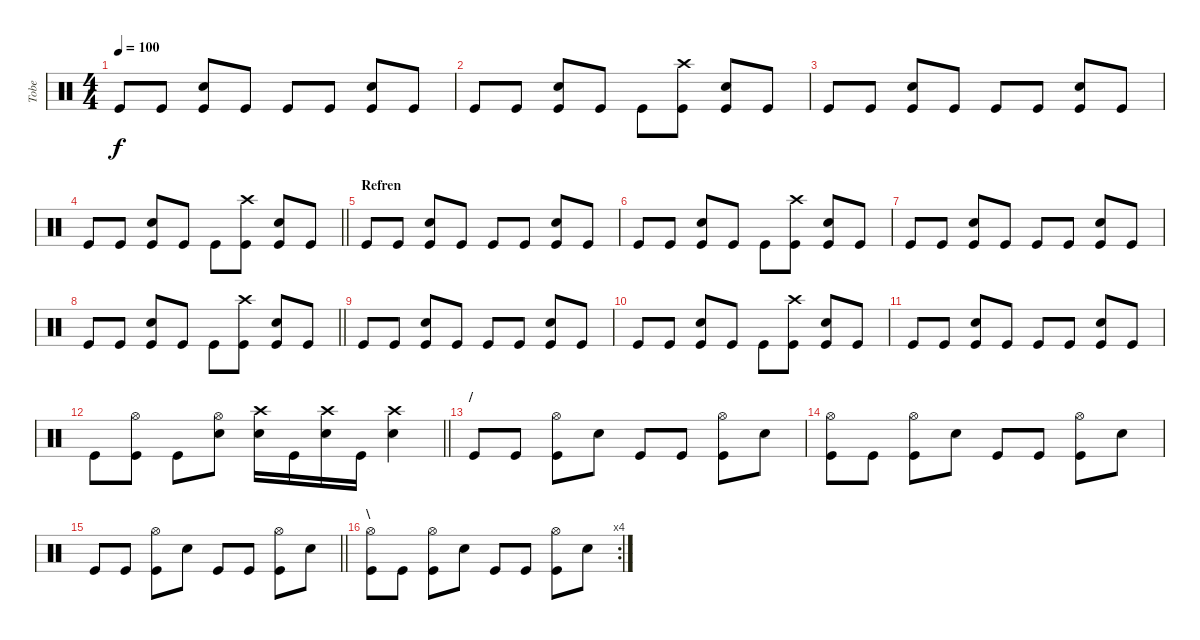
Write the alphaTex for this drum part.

\track ("Tobe" "Tobe") {instrument percussion}
\staff {score}
\articulation defaults
\ts (4 4)
\tempo 100
\clef neutral
\ks c "Kick (hit)".8{dy f} "Kick (hit)".8
("Snare (hit) 2" "Kick (hit)").8 "Kick (hit)".8 "Kick (hit)".8 "Kick (hit)".8 ("Snare (hit) 2" "Kick (hit)").8 "Kick (hit)".8 |
"Kick (hit)".8 "Kick (hit)".8 ("Snare (hit) 2" "Kick (hit)").8 "Kick (hit)".8 "Kick (hit)".8 ("Crash high (hit)" "Kick (hit)").8 ("Snare (hit) 2" "Kick (hit)").8 "Kick (hit)".8 |
"Kick (hit)".8 "Kick (hit)".8 ("Snare (hit) 2" "Kick (hit)").8 "Kick (hit)".8 "Kick (hit)".8 "Kick (hit)".8 ("Snare (hit) 2" "Kick (hit)").8 "Kick (hit)".8 |
\barLineRight lightlight "Kick (hit)".8 "Kick (hit)".8
("Snare (hit) 2" "Kick (hit)").8 "Kick (hit)".8 "Kick (hit)".8 ("Crash high (hit)" "Kick (hit)").8 ("Snare (hit) 2" "Kick (hit)").8 "Kick (hit)".8 |
\section ("" "Refren")
"Kick (hit)".8 "Kick (hit)".8 ("Snare (hit) 2" "Kick (hit)").8 "Kick (hit)".8 "Kick (hit)".8 "Kick (hit)".8 ("Snare (hit) 2" "Kick (hit)").8 "Kick (hit)".8 |
"Kick (hit)".8 "Kick (hit)".8 ("Snare (hit) 2" "Kick (hit)").8 "Kick (hit)".8 "Kick (hit)".8 ("Crash high (hit)" "Kick (hit)").8 ("Snare (hit) 2" "Kick (hit)").8 "Kick (hit)".8 |
"Kick (hit)".8 "Kick (hit)".8 ("Snare (hit) 2" "Kick (hit)").8 "Kick (hit)".8 "Kick (hit)".8 "Kick (hit)".8 ("Snare (hit) 2" "Kick (hit)").8 "Kick (hit)".8 |
\barLineRight lightlight "Kick (hit)".8 "Kick (hit)".8
("Snare (hit) 2" "Kick (hit)").8 "Kick (hit)".8 "Kick (hit)".8 ("Crash high (hit)" "Kick (hit)").8 ("Snare (hit) 2" "Kick (hit)").8 "Kick (hit)".8 |
"Kick (hit)".8 "Kick (hit)".8 ("Snare (hit) 2" "Kick (hit)").8 "Kick (hit)".8 "Kick (hit)".8 "Kick (hit)".8 ("Snare (hit) 2" "Kick (hit)").8 "Kick (hit)".8 |
"Kick (hit)".8 "Kick (hit)".8 ("Snare (hit) 2" "Kick (hit)").8 "Kick (hit)".8 "Kick (hit)".8 ("Crash high (hit)" "Kick (hit)").8 ("Snare (hit) 2" "Kick (hit)").8 "Kick (hit)".8 |
"Kick (hit)".8 "Kick (hit)".8 ("Snare (hit) 2" "Kick (hit)").8 "Kick (hit)".8 "Kick (hit)".8 "Kick (hit)".8 ("Snare (hit) 2" "Kick (hit)").8 "Kick (hit)".8 |
\barLineRight lightlight "Kick (hit)".8
("Hi-Hat (open)" "Kick (hit)").8 "Kick (hit)".8 ("Hi-Hat (open)" "Snare (hit) 2").8 ("Crash high (hit)" "Snare (hit) 2").16 "Kick (hit)".16 ("Crash high (hit)" "Snare (hit) 2").16 "Kick (hit)".16 ("Crash high (hit)" "Snare (hit) 2").4 |
\section ("" "/")
"Kick (hit)".8 "Kick (hit)".8 ("Hi-Hat (open)" "Kick (hit)").8 "Snare (hit) 2".8 "Kick (hit)".8 "Kick (hit)".8 ("Hi-Hat (open)" "Kick (hit)").8 "Snare (hit) 2".8 |
("Hi-Hat (open)" "Kick (hit)").8 "Kick (hit)".8 ("Hi-Hat (open)" "Kick (hit)").8 "Snare (hit) 2".8 "Kick (hit)".8 "Kick (hit)".8 ("Hi-Hat (open)" "Kick (hit)").8 "Snare (hit) 2".8 |
\barLineRight lightlight "Kick (hit)".8 "Kick (hit)".8
("Hi-Hat (open)" "Kick (hit)").8 "Snare (hit) 2".8 "Kick (hit)".8 "Kick (hit)".8 ("Hi-Hat (open)" "Kick (hit)").8 "Snare (hit) 2".8 |
\rc 4
\section ("" "\\")
("Hi-Hat (open)" "Kick (hit)").8 "Kick (hit)".8 ("Hi-Hat (open)" "Kick (hit)").8 "Snare (hit) 2".8 "Kick (hit)".8 "Kick (hit)".8 ("Hi-Hat (open)" "Kick (hit)").8 "Snare (hit) 2".8
